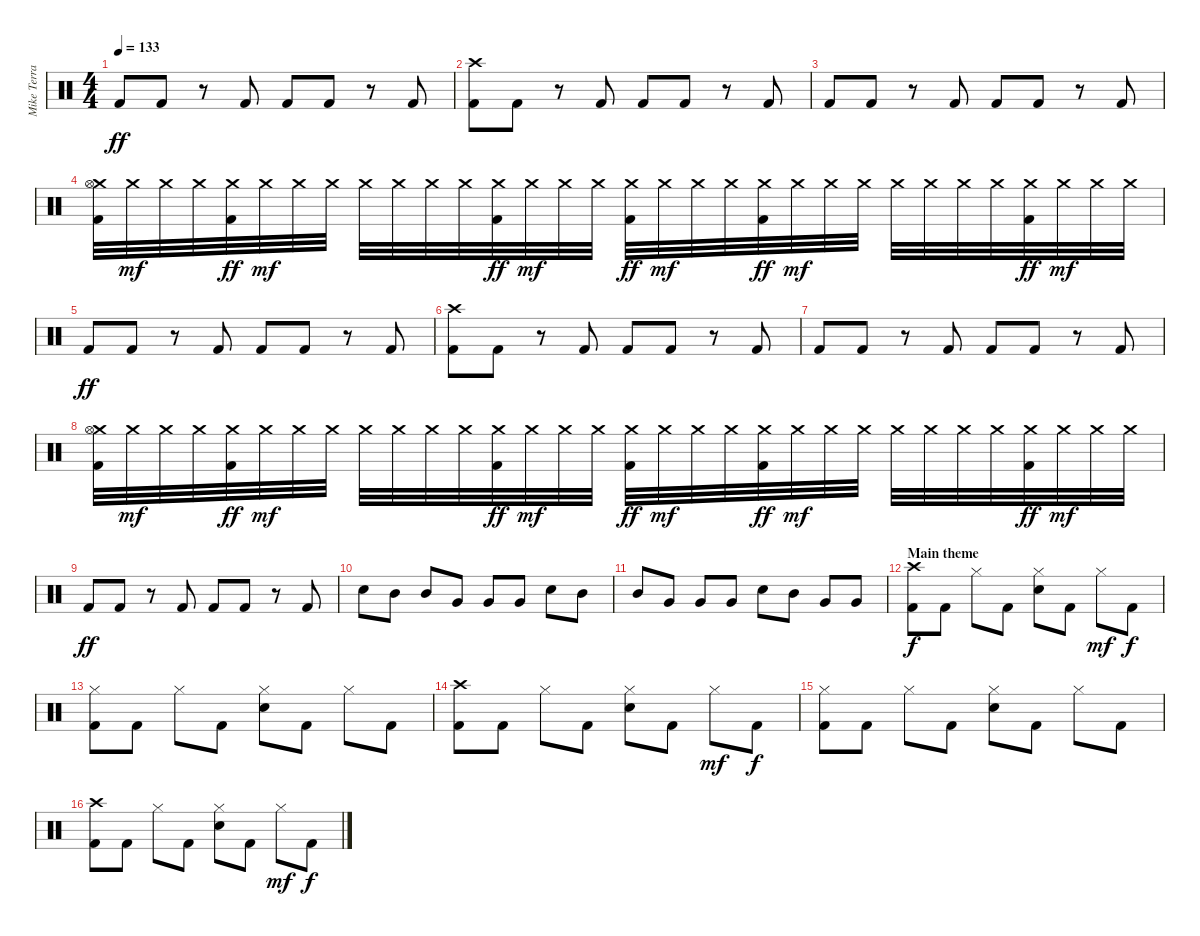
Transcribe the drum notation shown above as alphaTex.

\track ("Mike Terrana" "Mike Terra") {instrument percussion}
\staff {score}
\articulation defaults
\ts (4 4)
\tempo 133
\clef neutral
\ks c "Kick (hit) 2".8{dy ff} "Kick (hit) 2".8
r.8 "Kick (hit) 2".8 "Kick (hit) 2".8 "Kick (hit) 2".8 r.8 "Kick (hit) 2".8 |
("Crash high (hit)" "Kick (hit) 2").8 "Kick (hit) 2".8 r.8 "Kick (hit) 2".8 "Kick (hit) 2".8 "Kick (hit) 2".8 r.8 "Kick (hit) 2".8 |
"Kick (hit) 2".8 "Kick (hit) 2".8 r.8 "Kick (hit) 2".8 "Kick (hit) 2".8 "Kick (hit) 2".8 r.8 "Kick (hit) 2".8 |
("Crash medium (hit)" "Hi-Hat (open)" "Kick (hit) 2").32 "Crash medium (hit)".32{dy mf} "Crash medium (hit)".32 "Crash medium (hit)".32 ("Crash medium (hit)" "Kick (hit) 2").32{dy ff} "Crash medium (hit)".32{dy mf} "Crash medium (hit)".32 "Crash medium (hit)".32 "Crash medium (hit)".32 "Crash medium (hit)".32 "Crash medium (hit)".32 "Crash medium (hit)".32 ("Crash medium (hit)" "Kick (hit) 2").32{dy ff} "Crash medium (hit)".32{dy mf} "Crash medium (hit)".32 "Crash medium (hit)".32 ("Crash medium (hit)" "Kick (hit) 2").32{dy ff} "Crash medium (hit)".32{dy mf} "Crash medium (hit)".32 "Crash medium (hit)".32 ("Crash medium (hit)" "Kick (hit) 2").32{dy ff} "Crash medium (hit)".32{dy mf} "Crash medium (hit)".32 "Crash medium (hit)".32 "Crash medium (hit)".32 "Crash medium (hit)".32 "Crash medium (hit)".32 "Crash medium (hit)".32 ("Crash medium (hit)" "Kick (hit) 2").32{dy ff} "Crash medium (hit)".32{dy mf} "Crash medium (hit)".32 "Crash medium (hit)".32 |
"Kick (hit) 2".8{dy ff} "Kick (hit) 2".8 r.8 "Kick (hit) 2".8 "Kick (hit) 2".8 "Kick (hit) 2".8 r.8 "Kick (hit) 2".8 |
("Crash high (hit)" "Kick (hit) 2").8 "Kick (hit) 2".8 r.8 "Kick (hit) 2".8 "Kick (hit) 2".8 "Kick (hit) 2".8 r.8 "Kick (hit) 2".8 |
"Kick (hit) 2".8 "Kick (hit) 2".8 r.8 "Kick (hit) 2".8 "Kick (hit) 2".8 "Kick (hit) 2".8 r.8 "Kick (hit) 2".8 |
("Crash medium (hit)" "Hi-Hat (open)" "Kick (hit) 2").32 "Crash medium (hit)".32{dy mf} "Crash medium (hit)".32 "Crash medium (hit)".32 ("Crash medium (hit)" "Kick (hit) 2").32{dy ff} "Crash medium (hit)".32{dy mf} "Crash medium (hit)".32 "Crash medium (hit)".32 "Crash medium (hit)".32 "Crash medium (hit)".32 "Crash medium (hit)".32 "Crash medium (hit)".32 ("Crash medium (hit)" "Kick (hit) 2").32{dy ff} "Crash medium (hit)".32{dy mf} "Crash medium (hit)".32 "Crash medium (hit)".32 ("Crash medium (hit)" "Kick (hit) 2").32{dy ff} "Crash medium (hit)".32{dy mf} "Crash medium (hit)".32 "Crash medium (hit)".32 ("Crash medium (hit)" "Kick (hit) 2").32{dy ff} "Crash medium (hit)".32{dy mf} "Crash medium (hit)".32 "Crash medium (hit)".32 "Crash medium (hit)".32 "Crash medium (hit)".32 "Crash medium (hit)".32 "Crash medium (hit)".32 ("Crash medium (hit)" "Kick (hit) 2").32{dy ff} "Crash medium (hit)".32{dy mf} "Crash medium (hit)".32 "Crash medium (hit)".32 |
"Kick (hit) 2".8{dy ff} "Kick (hit) 2".8 r.8 "Kick (hit) 2".8 "Kick (hit) 2".8 "Kick (hit) 2".8 r.8 "Kick (hit) 2".8 |
"Snare (hit) 2".8 "Mid Tom (hit)".8 "Mid Tom (hit)".8 "Very Low Tom (hit)".8 "Very Low Tom (hit)".8 "Very Low Tom (hit)".8 "Snare (hit) 2".8 "Mid Tom (hit)".8 |
"Mid Tom (hit)".8 "Very Low Tom (hit)".8 "Very Low Tom (hit)".8 "Very Low Tom (hit)".8 "Snare (hit) 2".8 "Mid Tom (hit)".8 "Very Low Tom (hit)".8 "Very Low Tom (hit)".8 |
\section ("" "Main theme")
("Crash high (hit)" "Kick (hit) 2").8{dy f} "Kick (hit) 2".8 "Hi-Hat (closed)".8 "Kick (hit) 2".8 ("Hi-Hat (closed)" "Snare (hit) 2").8 "Kick (hit) 2".8 "Hi-Hat (closed)".8{dy mf} "Kick (hit) 2".8{dy f} |
("Hi-Hat (closed)" "Kick (hit) 2").8 "Kick (hit) 2".8 "Hi-Hat (closed)".8 "Kick (hit) 2".8 ("Hi-Hat (closed)" "Snare (hit) 2").8 "Kick (hit) 2".8 "Hi-Hat (closed)".8 "Kick (hit) 2".8 |
("Crash high (hit)" "Kick (hit) 2").8 "Kick (hit) 2".8 "Hi-Hat (closed)".8 "Kick (hit) 2".8 ("Hi-Hat (closed)" "Snare (hit) 2").8 "Kick (hit) 2".8 "Hi-Hat (closed)".8{dy mf} "Kick (hit) 2".8{dy f} |
("Hi-Hat (closed)" "Kick (hit) 2").8 "Kick (hit) 2".8 "Hi-Hat (closed)".8 "Kick (hit) 2".8 ("Hi-Hat (closed)" "Snare (hit) 2").8 "Kick (hit) 2".8 "Hi-Hat (closed)".8 "Kick (hit) 2".8 |
("Crash high (hit)" "Kick (hit) 2").8 "Kick (hit) 2".8 "Hi-Hat (closed)".8 "Kick (hit) 2".8 ("Hi-Hat (closed)" "Snare (hit) 2").8 "Kick (hit) 2".8 "Hi-Hat (closed)".8{dy mf} "Kick (hit) 2".8{dy f}
